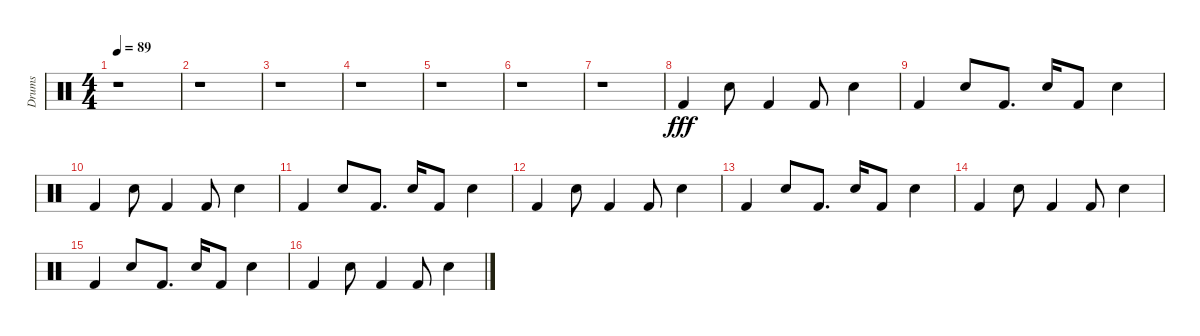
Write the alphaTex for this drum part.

\track ("Drums" "Drums") {instrument percussion}
\staff {score}
\articulation defaults
\ts (4 4)
\tempo 89
\clef neutral
\ks c
r.1{dy fff} |
r.1 |
r.1 |
r.1 |
r.1 |
r.1 |
r.1 |
"Kick (hit) 2".4 "Electric Snare (hit)".8 "Kick (hit) 2".4 "Kick (hit) 2".8 "Electric Snare (hit)".4 |
"Kick (hit) 2".4 "Electric Snare (hit)".8 "Kick (hit) 2".8{d} "Electric Snare (hit)".16 "Kick (hit) 2".8 "Electric Snare (hit)".4 |
"Kick (hit) 2".4 "Electric Snare (hit)".8 "Kick (hit) 2".4 "Kick (hit) 2".8 "Electric Snare (hit)".4 |
"Kick (hit) 2".4 "Electric Snare (hit)".8 "Kick (hit) 2".8{d} "Electric Snare (hit)".16 "Kick (hit) 2".8 "Electric Snare (hit)".4 |
"Kick (hit) 2".4 "Electric Snare (hit)".8 "Kick (hit) 2".4 "Kick (hit) 2".8 "Electric Snare (hit)".4 |
"Kick (hit) 2".4 "Electric Snare (hit)".8 "Kick (hit) 2".8{d} "Electric Snare (hit)".16 "Kick (hit) 2".8 "Electric Snare (hit)".4 |
"Kick (hit) 2".4 "Electric Snare (hit)".8 "Kick (hit) 2".4 "Kick (hit) 2".8 "Electric Snare (hit)".4 |
"Kick (hit) 2".4 "Electric Snare (hit)".8 "Kick (hit) 2".8{d} "Electric Snare (hit)".16 "Kick (hit) 2".8 "Electric Snare (hit)".4 |
"Kick (hit) 2".4 "Electric Snare (hit)".8 "Kick (hit) 2".4 "Kick (hit) 2".8 "Electric Snare (hit)".4
